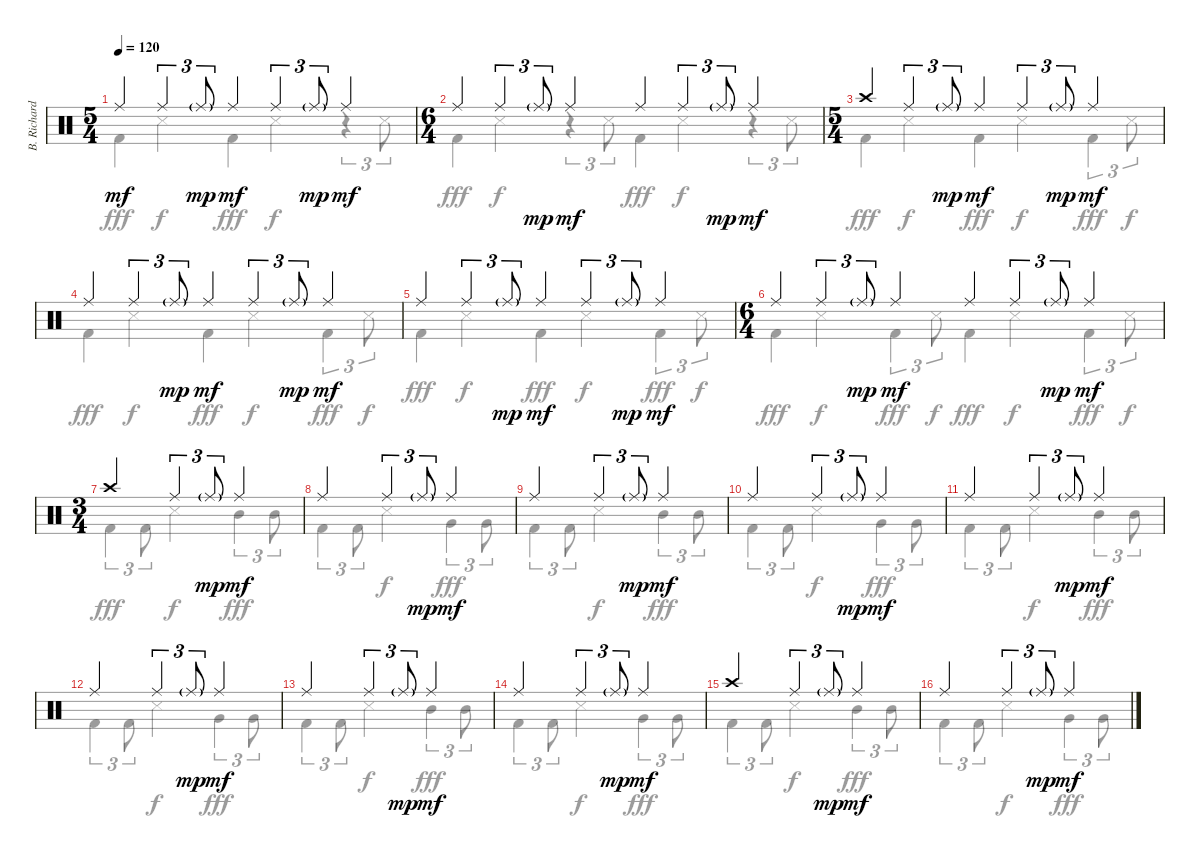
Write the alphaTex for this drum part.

\track ("B. Richardson Drums" "B. Richard") {instrument percussion}
\staff {score}
\articulation defaults
\voice
\ts (5 4)
\tempo 120
\clef neutral
\ks c "Ride (middle)".4{dy mf} "Ride (middle)".4{tu (3 2)} "Ride (middle)"{g}.8{tu (3 2) dy mp} "Ride (middle)".4{dy mf} "Ride (middle)".4{tu (3 2)} "Ride (middle)"{g}.8{tu (3 2) dy mp} "Ride (middle)".4{dy mf}
|
\ts (6 4)
"Ride (middle)".4 "Ride (middle)".4{tu (3 2)} "Ride (middle)"{g}.8{tu (3 2) dy mp} "Ride (middle)".4{dy mf} "Ride (middle)".4 "Ride (middle)".4{tu (3 2)} "Ride (middle)"{g}.8{tu (3 2) dy mp} "Ride (middle)".4{dy mf} |
\ts (5 4)
"Crash high (hit)".4 "Ride (middle)".4{tu (3 2)} "Ride (middle)"{g}.8{tu (3 2) dy mp} "Ride (middle)".4{dy mf} "Ride (middle)".4{tu (3 2)} "Ride (middle)"{g}.8{tu (3 2) dy mp} "Ride (middle)".4{dy mf} |
"Ride (middle)".4 "Ride (middle)".4{tu (3 2)} "Ride (middle)"{g}.8{tu (3 2) dy mp} "Ride (middle)".4{dy mf} "Ride (middle)".4{tu (3 2)} "Ride (middle)"{g}.8{tu (3 2) dy mp} "Ride (middle)".4{dy mf} |
"Ride (middle)".4 "Ride (middle)".4{tu (3 2)} "Ride (middle)"{g}.8{tu (3 2) dy mp} "Ride (middle)".4{dy mf} "Ride (middle)".4{tu (3 2)} "Ride (middle)"{g}.8{tu (3 2) dy mp} "Ride (middle)".4{dy mf} |
\ts (6 4)
"Ride (middle)".4 "Ride (middle)".4{tu (3 2)} "Ride (middle)"{g}.8{tu (3 2) dy mp} "Ride (middle)".4{dy mf} "Ride (middle)".4 "Ride (middle)".4{tu (3 2)} "Ride (middle)"{g}.8{tu (3 2) dy mp} "Ride (middle)".4{dy mf} |
\ts (3 4)
"Crash high (hit)".4 "Ride (middle)".4{tu (3 2)} "Ride (middle)"{g}.8{tu (3 2) dy mp} "Ride (middle)".4{dy mf} |
"Ride (middle)".4 "Ride (middle)".4{tu (3 2)} "Ride (middle)"{g}.8{tu (3 2) dy mp} "Ride (middle)".4{dy mf} |
"Ride (middle)".4 "Ride (middle)".4{tu (3 2)} "Ride (middle)"{g}.8{tu (3 2) dy mp} "Ride (middle)".4{dy mf} |
"Ride (middle)".4 "Ride (middle)".4{tu (3 2)} "Ride (middle)"{g}.8{tu (3 2) dy mp} "Ride (middle)".4{dy mf} |
"Ride (middle)".4 "Ride (middle)".4{tu (3 2)} "Ride (middle)"{g}.8{tu (3 2) dy mp} "Ride (middle)".4{dy mf} |
"Ride (middle)".4 "Ride (middle)".4{tu (3 2)} "Ride (middle)"{g}.8{tu (3 2) dy mp} "Ride (middle)".4{dy mf} |
"Ride (middle)".4 "Ride (middle)".4{tu (3 2)} "Ride (middle)"{g}.8{tu (3 2) dy mp} "Ride (middle)".4{dy mf} |
"Ride (middle)".4 "Ride (middle)".4{tu (3 2)} "Ride (middle)"{g}.8{tu (3 2) dy mp} "Ride (middle)".4{dy mf} |
"Crash high (hit)".4 "Ride (middle)".4{tu (3 2)} "Ride (middle)"{g}.8{tu (3 2) dy mp} "Ride (middle)".4{dy mf} |
"Ride (middle)".4 "Ride (middle)".4{tu (3 2)} "Ride (middle)"{g}.8{tu (3 2) dy mp} "Ride (middle)".4{dy mf}
\voice
\clef neutral
\ottava regular
\simile none
\ks c "Kick (hit) 2".4{dy fff} "Snare (side stick) 3".4{dy f} "Kick (hit) 2".4{dy fff} "Snare (side stick) 3".4{dy f}
r.4{tu (3 2)} "Snare (side stick) 3".8{tu (3 2)} |
"Kick (hit) 2".4{dy fff} "Snare (side stick) 3".4{dy f} r.4{tu (3 2)} "Snare (side stick) 3".8{tu (3 2)} "Kick (hit) 2".4{dy fff} "Snare (side stick) 3".4{dy f} r.4{tu (3 2)} "Snare (side stick) 3".8{tu (3 2)} |
"Kick (hit) 2".4{dy fff} "Snare (side stick) 3".4{dy f} "Kick (hit) 2".4{dy fff} "Snare (side stick) 3".4{dy f} "Kick (hit) 2".4{tu (3 2) dy fff} "Snare (side stick) 3".8{tu (3 2) dy f} |
"Kick (hit) 2".4{dy fff} "Snare (side stick) 3".4{dy f} "Kick (hit) 2".4{dy fff} "Snare (side stick) 3".4{dy f} "Kick (hit) 2".4{tu (3 2) dy fff} "Snare (side stick) 3".8{tu (3 2) dy f} |
"Kick (hit) 2".4{dy fff} "Snare (side stick) 3".4{dy f} "Kick (hit) 2".4{dy fff} "Snare (side stick) 3".4{dy f} "Kick (hit) 2".4{tu (3 2) dy fff} "Snare (side stick) 3".8{tu (3 2) dy f} |
"Kick (hit) 2".4{dy fff} "Snare (side stick) 3".4{dy f} "Kick (hit) 2".4{tu (3 2) dy fff} "Snare (side stick) 3".8{tu (3 2) dy f} "Kick (hit) 2".4{dy fff} "Snare (side stick) 3".4{dy f} "Kick (hit) 2".4{tu (3 2) dy fff} "Snare (side stick) 3".8{tu (3 2) dy f} |
"Kick (hit) 2".4{tu (3 2) dy fff} "Kick (hit) 2".8{tu (3 2)} "Snare (side stick) 3".4{dy f} "Mid Tom (hit)".4{tu (3 2) dy fff} "Mid Tom (hit)".8{tu (3 2)} |
"Kick (hit) 2".4{tu (3 2)} "Kick (hit) 2".8{tu (3 2)} "Snare (side stick) 3".4{dy f} "Very Low Tom (hit)".4{tu (3 2) dy fff} "Very Low Tom (hit)".8{tu (3 2)} |
"Kick (hit) 2".4{tu (3 2)} "Kick (hit) 2".8{tu (3 2)} "Snare (side stick) 3".4{dy f} "Mid Tom (hit)".4{tu (3 2) dy fff} "Mid Tom (hit)".8{tu (3 2)} |
"Kick (hit) 2".4{tu (3 2)} "Kick (hit) 2".8{tu (3 2)} "Snare (side stick) 3".4{dy f} "Very Low Tom (hit)".4{tu (3 2) dy fff} "Very Low Tom (hit)".8{tu (3 2)} |
"Kick (hit) 2".4{tu (3 2)} "Kick (hit) 2".8{tu (3 2)} "Snare (side stick) 3".4{dy f} "Mid Tom (hit)".4{tu (3 2) dy fff} "Mid Tom (hit)".8{tu (3 2)} |
"Kick (hit) 2".4{tu (3 2)} "Kick (hit) 2".8{tu (3 2)} "Snare (side stick) 3".4{dy f} "Very Low Tom (hit)".4{tu (3 2) dy fff} "Very Low Tom (hit)".8{tu (3 2)} |
"Kick (hit) 2".4{tu (3 2)} "Kick (hit) 2".8{tu (3 2)} "Snare (side stick) 3".4{dy f} "Mid Tom (hit)".4{tu (3 2) dy fff} "Mid Tom (hit)".8{tu (3 2)} |
"Kick (hit) 2".4{tu (3 2)} "Kick (hit) 2".8{tu (3 2)} "Snare (side stick) 3".4{dy f} "Very Low Tom (hit)".4{tu (3 2) dy fff} "Very Low Tom (hit)".8{tu (3 2)} |
"Kick (hit) 2".4{tu (3 2)} "Kick (hit) 2".8{tu (3 2)} "Snare (side stick) 3".4{dy f} "Mid Tom (hit)".4{tu (3 2) dy fff} "Mid Tom (hit)".8{tu (3 2)} |
"Kick (hit) 2".4{tu (3 2)} "Kick (hit) 2".8{tu (3 2)} "Snare (side stick) 3".4{dy f} "Very Low Tom (hit)".4{tu (3 2) dy fff} "Very Low Tom (hit)".8{tu (3 2)}
